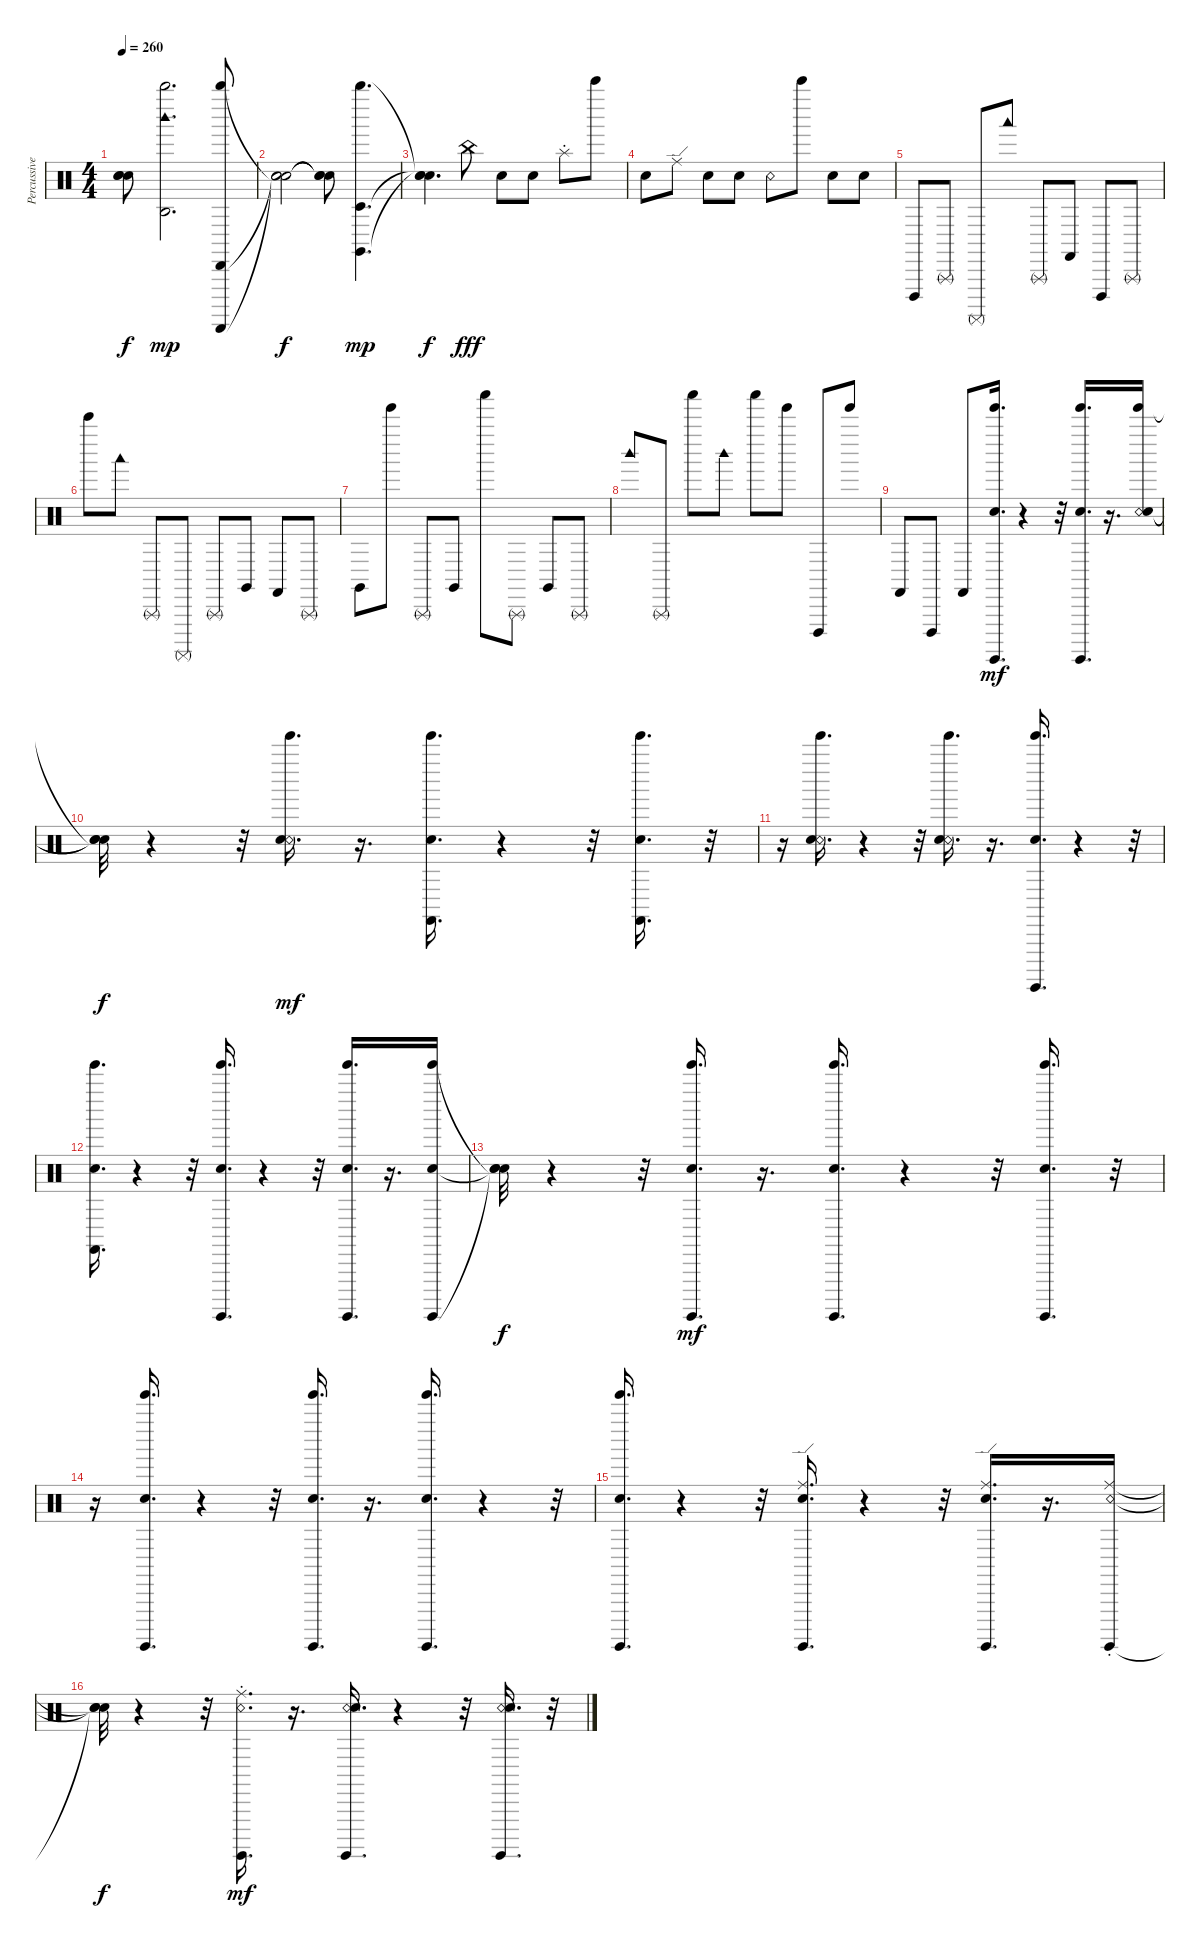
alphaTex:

\track ("Percussive Organ" "Percussive") {instrument percussion}
\staff {score}
\articulation defaults
\ts (4 4)
\tempo 260
\clef neutral
\ks c
("Snare (hit)"{t} "Snare (hit)"{t} "Snare (hit)"{t}).8{dy f} ("Agogo high (hit)" "Whistle high (hit)" "Woodblock high (hit)").2{d dy mp} ("Cabasa (hit)" "Whistle high (hit)" "Guiro (scrap-return)").8 |
("Snare (hit)"{t} "Snare (hit)"{t} "Snare (hit)"{t}).2{dy f} ("Snare (hit)"{t} "Snare (hit)"{t} "Snare (hit)"{t}).8 ("Timbale low (hit)" "Whistle high (hit)" "Claves (hit)").4{d dy mp} |
("Snare (hit)"{t} "Snare (hit)"{t} "Snare (hit)"{t}).4{d dy f} "China (choke)".8{dy fff} "Snare (hit)".8 "Snare (hit)".8 "Splash (choke)".8 "Bell Tree (hit)".8 |
"Snare (hit)".8 "Ride (edge)".8 "Snare (hit)".8 "Snare (hit)".8 "Snare (rim shot)".8 "Bell Tree (hit)".8 "Snare (hit)".8 "Snare (hit)".8 |
"Cuica (open)".8 "Triangle (rnute)".8 "Surdo (mute)".8 "Woodblock low (hit)".8 "Triangle (rnute)".8 "Castanets (hit)".8 "Cuica (open)".8 "Triangle (rnute)".8 |
"Bell Tree (hit)".8 "Woodblock low (hit)".8 "Triangle (rnute)".8 "Surdo (mute)".8 "Triangle (rnute)".8 "Claves (hit)".8 "Castanets (hit)".8 "Triangle (rnute)".8 |
"Claves (hit)".8 "Tinkle Bell (hit)".8 "Triangle (rnute)".8 "Claves (hit)".8 "Shaker (hit)".8 "Triangle (rnute)".8 "Claves (hit)".8 "Triangle (rnute)".8 |
"Woodblock high (hit)".8 "Triangle (rnute)".8 "Shaker (hit)".8 "Woodblock high (hit)".8 "Shaker (hit)".8 "Tinkle Bell (hit)".8 "Cuica (open)".8 "Tinkle Bell (hit)".8 |
"Castanets (hit)".8 "Cuica (open)".8 "Castanets (hit)".8 ("Tinkle Bell (hit)" "Snare (hit)" "Surdo (hit)").16{d dy mf} r.4 r.32 ("Tinkle Bell (hit)" "Snare (hit)" "Surdo (hit)").16{d} r.16{d} ("Tinkle Bell (hit)" "Snare (rim shot)" "Snare (hit)").16 |
("Snare (hit)"{t} "Snare (hit)"{t} "Snare (hit)"{t}).32{dy f} r.4 r.32 ("Tinkle Bell (hit)" "Snare (rim shot)" "Snare (hit)").16{d dy mf} r.16{d} ("Tinkle Bell (hit)" "Snare (hit)" "Castanets (hit)").16{d} r.4 r.32 ("Tinkle Bell (hit)" "Snare (hit)" "Castanets (hit)").16{d} r.32 |
r.16 ("Tinkle Bell (hit)" "Snare (rim shot)" "Snare (hit)").16{d} r.4 r.32 ("Tinkle Bell (hit)" "Snare (rim shot)" "Snare (hit)").16{d} r.16{d} ("Tinkle Bell (hit)" "Snare (hit)" "Surdo (hit)").16{d} r.4 r.32 |
("Tinkle Bell (hit)" "Snare (hit)" "Castanets (hit)").16{d} r.4 r.32 ("Tinkle Bell (hit)" "Snare (hit)" "Surdo (hit)").16{d} r.4 r.32 ("Tinkle Bell (hit)" "Snare (hit)" "Surdo (hit)").16{d} r.16{d} ("Tinkle Bell (hit)" "Snare (hit)" "Surdo (hit)").16 |
("Snare (hit)"{t} "Snare (hit)"{t} "Snare (hit)"{t}).32{dy f} r.4 r.32 ("Tinkle Bell (hit)" "Snare (hit)" "Surdo (hit)").16{d dy mf} r.16{d} ("Tinkle Bell (hit)" "Snare (hit)" "Surdo (hit)").16{d} r.4 r.32 ("Tinkle Bell (hit)" "Snare (hit)" "Surdo (hit)").16{d} r.32 |
r.16 ("Tinkle Bell (hit)" "Snare (hit)" "Surdo (hit)").16{d} r.4 r.32 ("Tinkle Bell (hit)" "Snare (hit)" "Surdo (hit)").16{d} r.16{d} ("Tinkle Bell (hit)" "Snare (hit)" "Surdo (hit)").16{d} r.4 r.32 |
("Tinkle Bell (hit)" "Snare (hit)" "Surdo (hit)").16{d} r.4 r.32 ("Surdo (hit)" "Ride (edge)" "Snare (hit)").16{d} r.4 r.32 ("Surdo (hit)" "Ride (edge)" "Snare (hit)").16{d} r.16{d} ("Surdo (hit)" "Ride (choke)" "Snare (rim shot)").16 |
("Snare (hit)"{t} "Snare (hit)"{t} "Snare (hit)"{t}).32{dy f} r.4 r.32 ("Surdo (hit)" "Ride (choke)" "Snare (rim shot)").16{d dy mf} r.16{d} ("Surdo (hit)" "Snare (rim shot)" "Snare (hit)").16{d} r.4 r.32 ("Surdo (hit)" "Snare (rim shot)" "Snare (hit)").16{d} r.32
